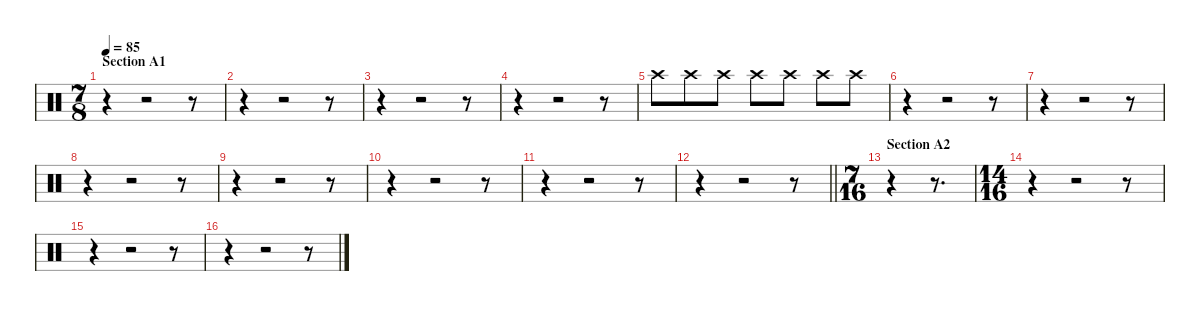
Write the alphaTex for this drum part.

\defaultSystemsLayout 4
\hideDynamics
\bracketExtendMode nobrackets
\singleTrackTrackNamePolicy hidden
\multiTrackTrackNamePolicy hidden
\firstSystemTrackNameMode fullname
\firstSystemTrackNameOrientation horizontal
\otherSystemsTrackNameOrientation horizontal
\track ("Drums" "drm.") {instrument percussion}
\staff {score}
\articulation defaults
\ts (7 8)
\beaming (8 3 2 2)
\section ("" "Section A1")
\tempo 85
\clef neutral
\ks c
r.4{dy f beam Down} r.2{beam Down} r.8{beam Down} |
r.4{beam Down} r.2{beam Down} r.8{beam Down} |
r.4{beam Down} r.2{beam Down} r.8{beam Down} |
r.4{beam Down} r.2{beam Down} r.8{beam Down} |
"Crash high (hit)".8{beam Down} "Crash high (hit)".8{beam Down} "Crash high (hit)".8{beam Down} "Crash high (hit)".8{beam Down} "Crash high (hit)".8{beam Down} "Crash high (hit)".8{beam Down} "Crash high (hit)".8{beam Down} |
r.4{beam Down} r.2{beam Down} r.8{beam Down} |
r.4{beam Down} r.2{beam Down} r.8{beam Down} |
r.4{beam Down} r.2{beam Down} r.8{beam Down} |
r.4{beam Down} r.2{beam Down} r.8{beam Down} |
r.4{beam Down} r.2{beam Down} r.8{beam Down} |
r.4{beam Down} r.2{beam Down} r.8{beam Down} |
\barLineRight lightlight
r.4{beam Down} r.2{beam Down} r.8{beam Down} |
\ts (7 16)
\beaming (8 3)
\section ("" "Section A2")
r.4{beam Down} r.8{d beam Down} |
\ts (14 16)
\beaming (8 7)
r.4{beam Down} r.2{beam Down} r.8{beam Down} |
r.4{beam Down} r.2{beam Down} r.8{beam Down} |
r.4{beam Down} r.2{beam Down} r.8{beam Down}
